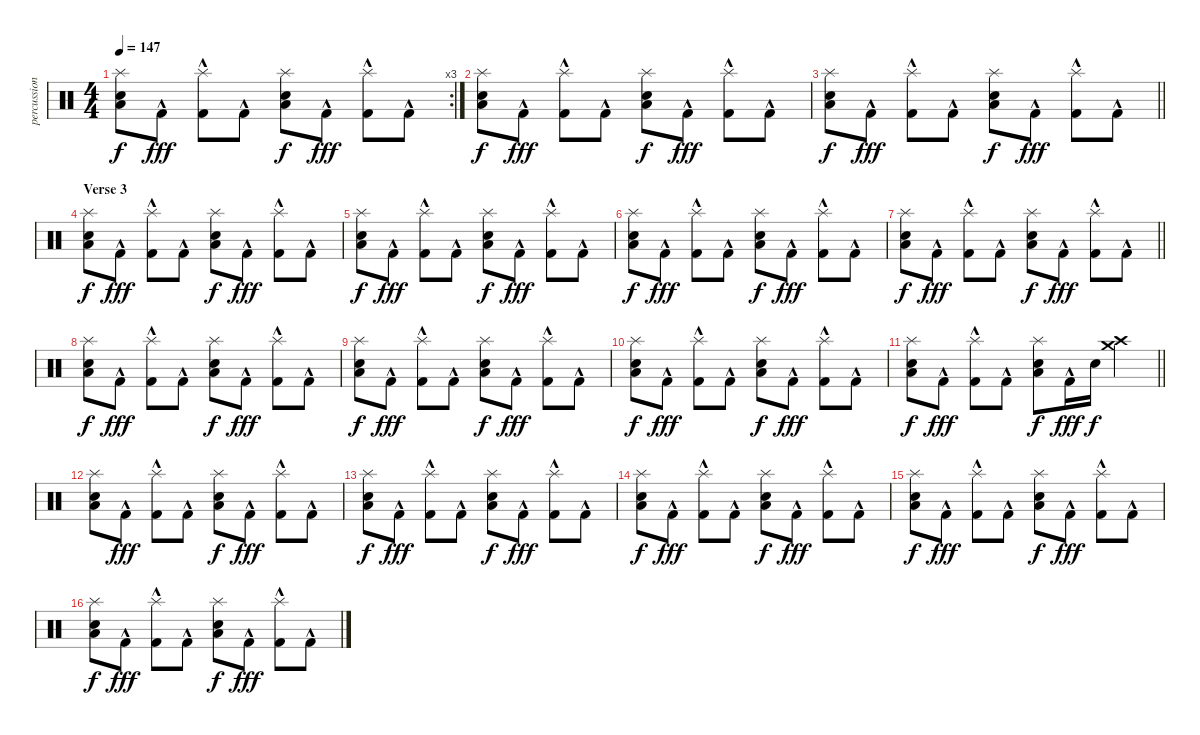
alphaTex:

\track ("percussion" "percussion") {instrument percussion}
\staff {score}
\articulation defaults
\rc 3
\ts (4 4)
\tempo 147
\clef neutral
\ks c
("Electric Snare (hit)" "Low Floor Tom (hit)" "Splash (hit)").8{dy f} "Kick (hit) 2"{hac}.8{dy fff} ("Kick (hit) 2"{hac} "Splash (hit)").8 "Kick (hit) 2"{hac}.8 ("Electric Snare (hit)" "Low Floor Tom (hit)" "Splash (hit)").8{dy f} "Kick (hit) 2"{hac}.8{dy fff} ("Kick (hit) 2"{hac} "Splash (hit)").8 "Kick (hit) 2"{hac}.8 |
("Electric Snare (hit)" "Low Floor Tom (hit)" "Splash (hit)").8{dy f} "Kick (hit) 2"{hac}.8{dy fff} ("Kick (hit) 2"{hac} "Splash (hit)").8 "Kick (hit) 2"{hac}.8 ("Electric Snare (hit)" "Low Floor Tom (hit)" "Splash (hit)").8{dy f} "Kick (hit) 2"{hac}.8{dy fff} ("Kick (hit) 2"{hac} "Splash (hit)").8 "Kick (hit) 2"{hac}.8 |
\barLineRight lightlight
("Electric Snare (hit)" "Low Floor Tom (hit)" "Splash (hit)").8{dy f} "Kick (hit) 2"{hac}.8{dy fff} ("Kick (hit) 2"{hac} "Splash (hit)").8 "Kick (hit) 2"{hac}.8 ("Electric Snare (hit)" "Low Floor Tom (hit)" "Splash (hit)").8{dy f} "Kick (hit) 2"{hac}.8{dy fff} ("Kick (hit) 2"{hac} "Splash (hit)").8 "Kick (hit) 2"{hac}.8 |
\section ("" "Verse 3")
("Electric Snare (hit)" "Low Floor Tom (hit)" "Splash (hit)").8{dy f} "Kick (hit) 2"{hac}.8{dy fff} ("Kick (hit) 2"{hac} "Splash (hit)").8 "Kick (hit) 2"{hac}.8 ("Electric Snare (hit)" "Low Floor Tom (hit)" "Splash (hit)").8{dy f} "Kick (hit) 2"{hac}.8{dy fff} ("Kick (hit) 2"{hac} "Splash (hit)").8 "Kick (hit) 2"{hac}.8 |
("Electric Snare (hit)" "Low Floor Tom (hit)" "Splash (hit)").8{dy f} "Kick (hit) 2"{hac}.8{dy fff} ("Kick (hit) 2"{hac} "Splash (hit)").8 "Kick (hit) 2"{hac}.8 ("Electric Snare (hit)" "Low Floor Tom (hit)" "Splash (hit)").8{dy f} "Kick (hit) 2"{hac}.8{dy fff} ("Kick (hit) 2"{hac} "Splash (hit)").8 "Kick (hit) 2"{hac}.8 |
("Electric Snare (hit)" "Low Floor Tom (hit)" "Splash (hit)").8{dy f} "Kick (hit) 2"{hac}.8{dy fff} ("Kick (hit) 2"{hac} "Splash (hit)").8 "Kick (hit) 2"{hac}.8 ("Electric Snare (hit)" "Low Floor Tom (hit)" "Splash (hit)").8{dy f} "Kick (hit) 2"{hac}.8{dy fff} ("Kick (hit) 2"{hac} "Splash (hit)").8 "Kick (hit) 2"{hac}.8 |
\barLineRight lightlight
("Electric Snare (hit)" "Low Floor Tom (hit)" "Splash (hit)").8{dy f} "Kick (hit) 2"{hac}.8{dy fff} ("Kick (hit) 2"{hac} "Splash (hit)").8 "Kick (hit) 2"{hac}.8 ("Electric Snare (hit)" "Low Floor Tom (hit)" "Splash (hit)").8{dy f} "Kick (hit) 2"{hac}.8{dy fff} ("Kick (hit) 2"{hac} "Splash (hit)").8 "Kick (hit) 2"{hac}.8 |
("Electric Snare (hit)" "Low Floor Tom (hit)" "Splash (hit)").8{dy f} "Kick (hit) 2"{hac}.8{dy fff} ("Kick (hit) 2"{hac} "Splash (hit)").8 "Kick (hit) 2"{hac}.8 ("Electric Snare (hit)" "Low Floor Tom (hit)" "Splash (hit)").8{dy f} "Kick (hit) 2"{hac}.8{dy fff} ("Kick (hit) 2"{hac} "Splash (hit)").8 "Kick (hit) 2"{hac}.8 |
("Electric Snare (hit)" "Low Floor Tom (hit)" "Splash (hit)").8{dy f} "Kick (hit) 2"{hac}.8{dy fff} ("Kick (hit) 2"{hac} "Splash (hit)").8 "Kick (hit) 2"{hac}.8 ("Electric Snare (hit)" "Low Floor Tom (hit)" "Splash (hit)").8{dy f} "Kick (hit) 2"{hac}.8{dy fff} ("Kick (hit) 2"{hac} "Splash (hit)").8 "Kick (hit) 2"{hac}.8 |
("Electric Snare (hit)" "Low Floor Tom (hit)" "Splash (hit)").8{dy f} "Kick (hit) 2"{hac}.8{dy fff} ("Kick (hit) 2"{hac} "Splash (hit)").8 "Kick (hit) 2"{hac}.8 ("Electric Snare (hit)" "Low Floor Tom (hit)" "Splash (hit)").8{dy f} "Kick (hit) 2"{hac}.8{dy fff} ("Kick (hit) 2"{hac} "Splash (hit)").8 "Kick (hit) 2"{hac}.8 |
\barLineRight lightlight
("Electric Snare (hit)" "Low Floor Tom (hit)" "Splash (hit)").8{dy f} "Kick (hit) 2"{hac}.8{dy fff} ("Kick (hit) 2"{hac} "Splash (hit)").8 "Kick (hit) 2"{hac}.8 ("Electric Snare (hit)" "Low Floor Tom (hit)" "Splash (hit)").8{dy f} "Kick (hit) 2"{hac}.16{dy fff} "Electric Snare (hit)".16{dy f} ("Crash medium (hit)" "Crash high (hit)").4 |
("Electric Snare (hit)" "Low Floor Tom (hit)" "Splash (hit)").8 "Kick (hit) 2"{hac}.8{dy fff} ("Kick (hit) 2"{hac} "Splash (hit)").8 "Kick (hit) 2"{hac}.8 ("Electric Snare (hit)" "Low Floor Tom (hit)" "Splash (hit)").8{dy f} "Kick (hit) 2"{hac}.8{dy fff} ("Kick (hit) 2"{hac} "Splash (hit)").8 "Kick (hit) 2"{hac}.8 |
("Electric Snare (hit)" "Low Floor Tom (hit)" "Splash (hit)").8{dy f} "Kick (hit) 2"{hac}.8{dy fff} ("Kick (hit) 2"{hac} "Splash (hit)").8 "Kick (hit) 2"{hac}.8 ("Electric Snare (hit)" "Low Floor Tom (hit)" "Splash (hit)").8{dy f} "Kick (hit) 2"{hac}.8{dy fff} ("Kick (hit) 2"{hac} "Splash (hit)").8 "Kick (hit) 2"{hac}.8 |
("Electric Snare (hit)" "Low Floor Tom (hit)" "Splash (hit)").8{dy f} "Kick (hit) 2"{hac}.8{dy fff} ("Kick (hit) 2"{hac} "Splash (hit)").8 "Kick (hit) 2"{hac}.8 ("Electric Snare (hit)" "Low Floor Tom (hit)" "Splash (hit)").8{dy f} "Kick (hit) 2"{hac}.8{dy fff} ("Kick (hit) 2"{hac} "Splash (hit)").8 "Kick (hit) 2"{hac}.8 |
("Electric Snare (hit)" "Low Floor Tom (hit)" "Splash (hit)").8{dy f} "Kick (hit) 2"{hac}.8{dy fff} ("Kick (hit) 2"{hac} "Splash (hit)").8 "Kick (hit) 2"{hac}.8 ("Electric Snare (hit)" "Low Floor Tom (hit)" "Splash (hit)").8{dy f} "Kick (hit) 2"{hac}.8{dy fff} ("Kick (hit) 2"{hac} "Splash (hit)").8 "Kick (hit) 2"{hac}.8 |
("Electric Snare (hit)" "Low Floor Tom (hit)" "Splash (hit)").8{dy f} "Kick (hit) 2"{hac}.8{dy fff} ("Kick (hit) 2"{hac} "Splash (hit)").8 "Kick (hit) 2"{hac}.8 ("Electric Snare (hit)" "Low Floor Tom (hit)" "Splash (hit)").8{dy f} "Kick (hit) 2"{hac}.8{dy fff} ("Kick (hit) 2"{hac} "Splash (hit)").8 "Kick (hit) 2"{hac}.8
